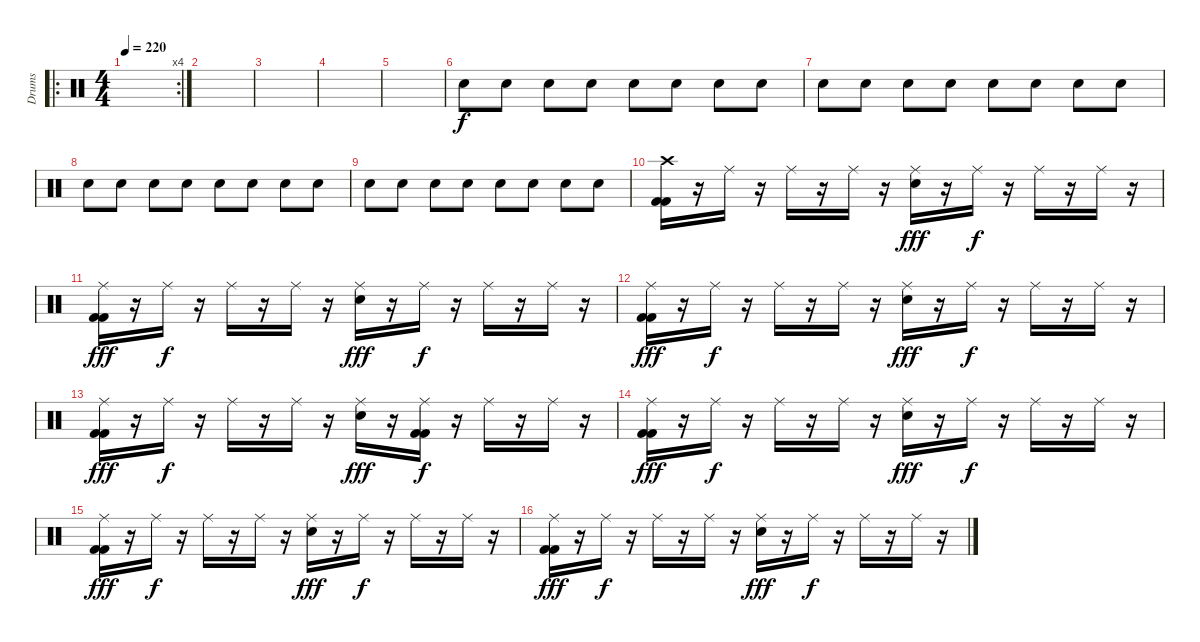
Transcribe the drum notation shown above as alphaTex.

\track ("Drums" "Drums") {instrument percussion}
\staff {score}
\articulation defaults
\ro
\rc 4
\ts (4 4)
\tempo 220
\clef neutral
\ks c
|
|
|
|
|
"Electric Snare (hit)".8{volume 4} "Electric Snare (hit)".8 "Electric Snare (hit)".8 "Electric Snare (hit)".8 "Electric Snare (hit)".8 "Electric Snare (hit)".8 "Electric Snare (hit)".8 "Electric Snare (hit)".8 |
"Electric Snare (hit)".8{volume 6} "Electric Snare (hit)".8 "Electric Snare (hit)".8 "Electric Snare (hit)".8 "Electric Snare (hit)".8 "Electric Snare (hit)".8 "Electric Snare (hit)".8 "Electric Snare (hit)".8 |
"Electric Snare (hit)".8{volume 8} "Electric Snare (hit)".8 "Electric Snare (hit)".8 "Electric Snare (hit)".8 "Electric Snare (hit)".8 "Electric Snare (hit)".8 "Electric Snare (hit)".8 "Electric Snare (hit)".8 |
"Electric Snare (hit)".8{volume 10} "Electric Snare (hit)".8 "Electric Snare (hit)".8 "Electric Snare (hit)".8 "Electric Snare (hit)".8 "Electric Snare (hit)".8 "Electric Snare (hit)".8 "Electric Snare (hit)".8 |
("Crash high (hit)" "Kick (hit) 2" "Kick (hit) 2").16 r.16 "Ride (middle)".16{dy f} r.16 "Ride (middle)".16 r.16 "Ride (middle)".16 r.16 ("Ride (middle)" "Electric Snare (hit)").16{dy fff} r.16 "Ride (middle)".16{dy f} r.16 "Ride (middle)".16 r.16 "Ride (middle)".16 r.16 |
("Ride (middle)" "Kick (hit) 2" "Kick (hit) 2").16{dy fff} r.16 "Ride (middle)".16{dy f} r.16 "Ride (middle)".16 r.16 "Ride (middle)".16 r.16 ("Ride (middle)" "Electric Snare (hit)").16{dy fff} r.16 "Ride (middle)".16{dy f} r.16 "Ride (middle)".16 r.16 "Ride (middle)".16 r.16 |
("Ride (middle)" "Kick (hit) 2" "Kick (hit) 2").16{dy fff} r.16 "Ride (middle)".16{dy f} r.16 "Ride (middle)".16 r.16 "Ride (middle)".16 r.16 ("Ride (middle)" "Electric Snare (hit)").16{dy fff} r.16 "Ride (middle)".16{dy f} r.16 "Ride (middle)".16 r.16 "Ride (middle)".16 r.16 |
("Ride (middle)" "Kick (hit) 2" "Kick (hit) 2").16{dy fff} r.16 "Ride (middle)".16{dy f} r.16 "Ride (middle)".16 r.16 "Ride (middle)".16 r.16 ("Ride (middle)" "Electric Snare (hit)").16{dy fff} r.16 ("Ride (middle)" "Kick (hit) 2" "Kick (hit) 2").16{dy f} r.16 "Ride (middle)".16 r.16 "Ride (middle)".16 r.16 |
("Ride (middle)" "Kick (hit) 2" "Kick (hit) 2").16{dy fff} r.16 "Ride (middle)".16{dy f} r.16 "Ride (middle)".16 r.16 "Ride (middle)".16 r.16 ("Ride (middle)" "Electric Snare (hit)").16{dy fff} r.16 "Ride (middle)".16{dy f} r.16 "Ride (middle)".16 r.16 "Ride (middle)".16 r.16 |
("Ride (middle)" "Kick (hit) 2" "Kick (hit) 2").16{dy fff} r.16 "Ride (middle)".16{dy f} r.16 "Ride (middle)".16 r.16 "Ride (middle)".16 r.16 ("Ride (middle)" "Electric Snare (hit)").16{dy fff} r.16 "Ride (middle)".16{dy f} r.16 "Ride (middle)".16 r.16 "Ride (middle)".16 r.16 |
("Ride (middle)" "Kick (hit) 2" "Kick (hit) 2").16{dy fff} r.16 "Ride (middle)".16{dy f} r.16 "Ride (middle)".16 r.16 "Ride (middle)".16 r.16 ("Ride (middle)" "Electric Snare (hit)").16{dy fff} r.16 "Ride (middle)".16{dy f} r.16 "Ride (middle)".16 r.16 "Ride (middle)".16 r.16
